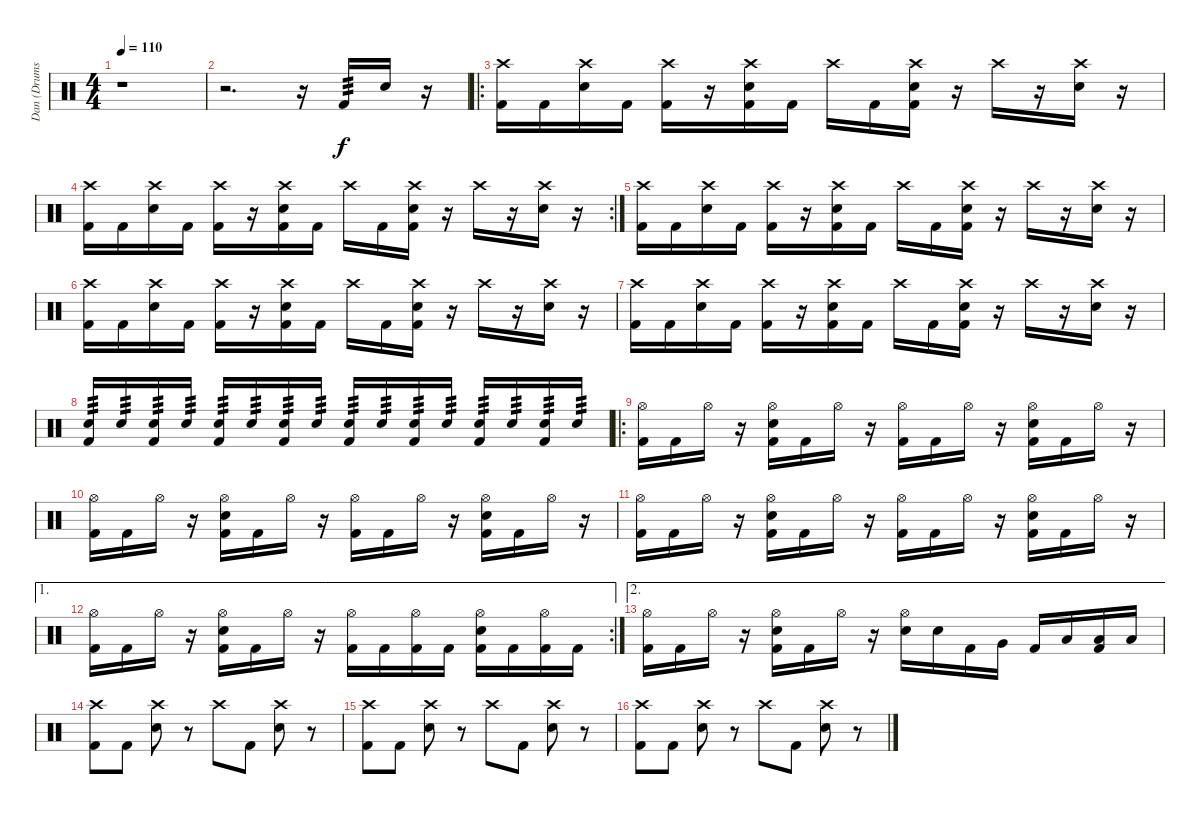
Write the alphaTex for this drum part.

\track ("Dan (Drums)" "Dan (Drums") {instrument percussion}
\staff {score}
\articulation defaults
\ts (4 4)
\tempo 110
\clef neutral
\ks c
r.1{dy f} |
r.2{d} r.16 "Kick (hit) 2".16{tp 3} "Electric Snare (hit)".16 r.16 |
\ro
("Crash high (hit)" "Kick (hit) 2").16 "Kick (hit) 2".16 ("Crash high (hit)" "Electric Snare (hit)").16 "Kick (hit) 2".16 ("Crash high (hit)" "Kick (hit) 2").16 r.16 ("Crash high (hit)" "Electric Snare (hit)" "Kick (hit) 2").16 "Kick (hit) 2".16 "Crash high (hit)".16 "Kick (hit) 2".16 ("Crash high (hit)" "Electric Snare (hit)" "Kick (hit) 2").16 r.16 "Crash high (hit)".16 r.16 ("Crash high (hit)" "Electric Snare (hit)").16 r.16 |
\rc 2
("Crash high (hit)" "Kick (hit) 2").16 "Kick (hit) 2".16 ("Crash high (hit)" "Electric Snare (hit)").16 "Kick (hit) 2".16 ("Crash high (hit)" "Kick (hit) 2").16 r.16 ("Crash high (hit)" "Electric Snare (hit)" "Kick (hit) 2").16 "Kick (hit) 2".16 "Crash high (hit)".16 "Kick (hit) 2".16 ("Crash high (hit)" "Electric Snare (hit)" "Kick (hit) 2").16 r.16 "Crash high (hit)".16 r.16 ("Crash high (hit)" "Electric Snare (hit)").16 r.16 |
("Crash high (hit)" "Kick (hit) 2").16 "Kick (hit) 2".16 ("Crash high (hit)" "Electric Snare (hit)").16 "Kick (hit) 2".16 ("Crash high (hit)" "Kick (hit) 2").16 r.16 ("Crash high (hit)" "Electric Snare (hit)" "Kick (hit) 2").16 "Kick (hit) 2".16 "Crash high (hit)".16 "Kick (hit) 2".16 ("Crash high (hit)" "Electric Snare (hit)" "Kick (hit) 2").16 r.16 "Crash high (hit)".16 r.16 ("Crash high (hit)" "Electric Snare (hit)").16 r.16 |
("Crash high (hit)" "Kick (hit) 2").16 "Kick (hit) 2".16 ("Crash high (hit)" "Electric Snare (hit)").16 "Kick (hit) 2".16 ("Crash high (hit)" "Kick (hit) 2").16 r.16 ("Crash high (hit)" "Electric Snare (hit)" "Kick (hit) 2").16 "Kick (hit) 2".16 "Crash high (hit)".16 "Kick (hit) 2".16 ("Crash high (hit)" "Electric Snare (hit)" "Kick (hit) 2").16 r.16 "Crash high (hit)".16 r.16 ("Crash high (hit)" "Electric Snare (hit)").16 r.16 |
("Crash high (hit)" "Kick (hit) 2").16 "Kick (hit) 2".16 ("Crash high (hit)" "Electric Snare (hit)").16 "Kick (hit) 2".16 ("Crash high (hit)" "Kick (hit) 2").16 r.16 ("Crash high (hit)" "Electric Snare (hit)" "Kick (hit) 2").16 "Kick (hit) 2".16 "Crash high (hit)".16 "Kick (hit) 2".16 ("Crash high (hit)" "Electric Snare (hit)" "Kick (hit) 2").16 r.16 "Crash high (hit)".16 r.16 ("Crash high (hit)" "Electric Snare (hit)").16 r.16 |
("Electric Snare (hit)" "Kick (hit) 2").16{tp 3} "Electric Snare (hit)".16{tp 3} ("Electric Snare (hit)" "Kick (hit) 2").16{tp 3} "Electric Snare (hit)".16{tp 3} ("Electric Snare (hit)" "Kick (hit) 2").16{tp 3} "Electric Snare (hit)".16{tp 3} ("Electric Snare (hit)" "Kick (hit) 2").16{tp 3} "Electric Snare (hit)".16{tp 3} ("Electric Snare (hit)" "Kick (hit) 2").16{tp 3} "Electric Snare (hit)".16{tp 3} ("Electric Snare (hit)" "Kick (hit) 2").16{tp 3} "Electric Snare (hit)".16{tp 3} ("Electric Snare (hit)" "Kick (hit) 2").16{tp 3} "Electric Snare (hit)".16{tp 3} ("Electric Snare (hit)" "Kick (hit) 2").16{tp 3} "Electric Snare (hit)".16{tp 3} |
\ro
("Hi-Hat (open)" "Kick (hit) 2").16 "Kick (hit) 2".16 "Hi-Hat (open)".16 r.16 ("Hi-Hat (open)" "Electric Snare (hit)" "Kick (hit) 2").16 "Kick (hit) 2".16 "Hi-Hat (open)".16 r.16 ("Hi-Hat (open)" "Kick (hit) 2").16 "Kick (hit) 2".16 "Hi-Hat (open)".16 r.16 ("Hi-Hat (open)" "Electric Snare (hit)" "Kick (hit) 2").16 "Kick (hit) 2".16 "Hi-Hat (open)".16 r.16 |
("Hi-Hat (open)" "Kick (hit) 2").16 "Kick (hit) 2".16 "Hi-Hat (open)".16 r.16 ("Hi-Hat (open)" "Electric Snare (hit)" "Kick (hit) 2").16 "Kick (hit) 2".16 "Hi-Hat (open)".16 r.16 ("Hi-Hat (open)" "Kick (hit) 2").16 "Kick (hit) 2".16 "Hi-Hat (open)".16 r.16 ("Hi-Hat (open)" "Electric Snare (hit)" "Kick (hit) 2").16 "Kick (hit) 2".16 "Hi-Hat (open)".16 r.16 |
("Hi-Hat (open)" "Kick (hit) 2").16 "Kick (hit) 2".16 "Hi-Hat (open)".16 r.16 ("Hi-Hat (open)" "Electric Snare (hit)" "Kick (hit) 2").16 "Kick (hit) 2".16 "Hi-Hat (open)".16 r.16 ("Hi-Hat (open)" "Kick (hit) 2").16 "Kick (hit) 2".16 "Hi-Hat (open)".16 r.16 ("Hi-Hat (open)" "Electric Snare (hit)" "Kick (hit) 2").16 "Kick (hit) 2".16 "Hi-Hat (open)".16 r.16 |
\ae 1
\rc 2
("Hi-Hat (open)" "Kick (hit) 2").16 "Kick (hit) 2".16 "Hi-Hat (open)".16 r.16 ("Hi-Hat (open)" "Electric Snare (hit)" "Kick (hit) 2").16 "Kick (hit) 2".16 "Hi-Hat (open)".16 r.16 ("Hi-Hat (open)" "Kick (hit) 2").16 "Kick (hit) 2".16 ("Hi-Hat (open)" "Kick (hit) 2").16 "Kick (hit) 2".16 ("Hi-Hat (open)" "Electric Snare (hit)" "Kick (hit) 2").16 "Kick (hit) 2".16 ("Hi-Hat (open)" "Kick (hit) 2").16 "Kick (hit) 2".16 |
\ae 2
("Hi-Hat (open)" "Kick (hit) 2").16 "Kick (hit) 2".16 "Hi-Hat (open)".16 r.16 ("Hi-Hat (open)" "Electric Snare (hit)" "Kick (hit) 2").16 "Kick (hit) 2".16 "Hi-Hat (open)".16 r.16 ("Hi-Hat (open)" "Electric Snare (hit)").16 "Electric Snare (hit)".16 "Kick (hit) 2".16 "Very Low Tom (hit)".16 "Kick (hit) 2".16 "Low Tom (hit)".16 ("Low Floor Tom (hit)" "Kick (hit) 2").16 "Low Floor Tom (hit)".16 |
("Crash high (hit)" "Kick (hit) 2").8 "Kick (hit) 2".8 ("Crash high (hit)" "Electric Snare (hit)").8 r.8 "Crash high (hit)".8 "Kick (hit) 2".8 ("Crash high (hit)" "Electric Snare (hit)").8 r.8 |
("Crash high (hit)" "Kick (hit) 2").8 "Kick (hit) 2".8 ("Crash high (hit)" "Electric Snare (hit)").8 r.8 "Crash high (hit)".8 "Kick (hit) 2".8 ("Crash high (hit)" "Electric Snare (hit)").8 r.8 |
("Crash high (hit)" "Kick (hit) 2").8 "Kick (hit) 2".8 ("Crash high (hit)" "Electric Snare (hit)").8 r.8 "Crash high (hit)".8 "Kick (hit) 2".8 ("Crash high (hit)" "Electric Snare (hit)").8 r.8
